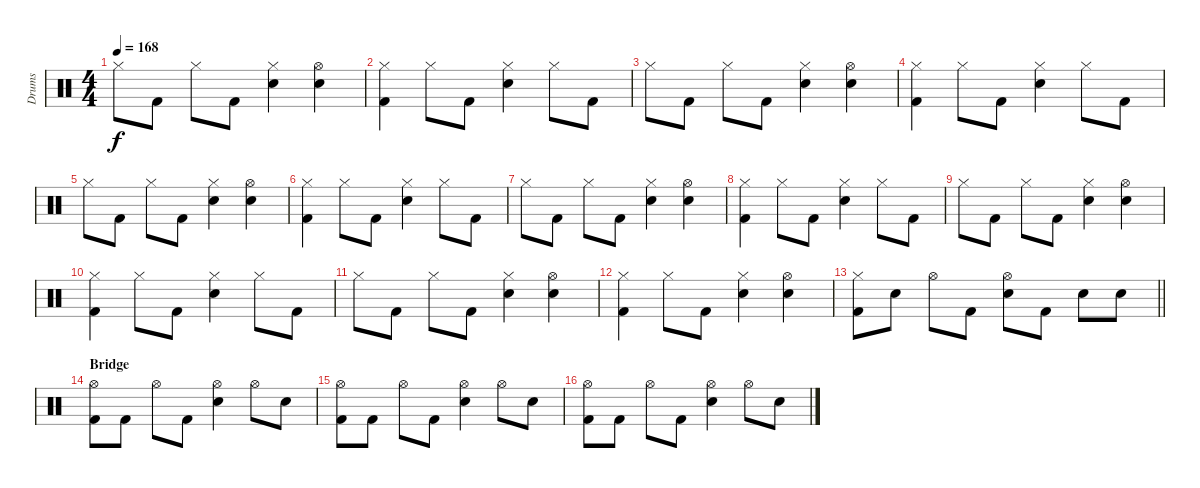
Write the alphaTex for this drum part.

\track ("Drums" "Drums") {instrument percussion}
\staff {score}
\articulation defaults
\ts (4 4)
\tempo 168
\clef neutral
\ks c "Hi-Hat (closed)".8{dy f} "Kick (hit) 2".8 "Hi-Hat (closed)".8 "Kick (hit) 2".8
("Hi-Hat (closed)" "Snare (hit) 2").4 ("Hi-Hat (open)" "Snare (hit) 2").4 |
("Hi-Hat (closed)" "Kick (hit) 2").4 "Hi-Hat (closed)".8 "Kick (hit) 2".8 ("Hi-Hat (closed)" "Snare (hit) 2").4 "Hi-Hat (closed)".8 "Kick (hit) 2".8 |
"Hi-Hat (closed)".8 "Kick (hit) 2".8 "Hi-Hat (closed)".8 "Kick (hit) 2".8 ("Hi-Hat (closed)" "Snare (hit) 2").4 ("Hi-Hat (open)" "Snare (hit) 2").4 |
("Hi-Hat (closed)" "Kick (hit) 2").4 "Hi-Hat (closed)".8 "Kick (hit) 2".8 ("Hi-Hat (closed)" "Snare (hit) 2").4 "Hi-Hat (closed)".8 "Kick (hit) 2".8 |
"Hi-Hat (closed)".8 "Kick (hit) 2".8 "Hi-Hat (closed)".8 "Kick (hit) 2".8 ("Hi-Hat (closed)" "Snare (hit) 2").4 ("Hi-Hat (open)" "Snare (hit) 2").4 |
("Hi-Hat (closed)" "Kick (hit) 2").4 "Hi-Hat (closed)".8 "Kick (hit) 2".8 ("Hi-Hat (closed)" "Snare (hit) 2").4 "Hi-Hat (closed)".8 "Kick (hit) 2".8 |
"Hi-Hat (closed)".8 "Kick (hit) 2".8 "Hi-Hat (closed)".8 "Kick (hit) 2".8 ("Hi-Hat (closed)" "Snare (hit) 2").4 ("Hi-Hat (open)" "Snare (hit) 2").4 |
("Hi-Hat (closed)" "Kick (hit) 2").4 "Hi-Hat (closed)".8 "Kick (hit) 2".8 ("Hi-Hat (closed)" "Snare (hit) 2").4 "Hi-Hat (closed)".8 "Kick (hit) 2".8 |
"Hi-Hat (closed)".8 "Kick (hit) 2".8 "Hi-Hat (closed)".8 "Kick (hit) 2".8 ("Hi-Hat (closed)" "Snare (hit) 2").4 ("Hi-Hat (open)" "Snare (hit) 2").4 |
("Hi-Hat (closed)" "Kick (hit) 2").4 "Hi-Hat (closed)".8 "Kick (hit) 2".8 ("Hi-Hat (closed)" "Snare (hit) 2").4 "Hi-Hat (closed)".8 "Kick (hit) 2".8 |
"Hi-Hat (closed)".8 "Kick (hit) 2".8 "Hi-Hat (closed)".8 "Kick (hit) 2".8 ("Hi-Hat (closed)" "Snare (hit) 2").4 ("Hi-Hat (open)" "Snare (hit) 2").4 |
("Hi-Hat (closed)" "Kick (hit) 2").4 "Hi-Hat (closed)".8 "Kick (hit) 2".8 ("Hi-Hat (closed)" "Snare (hit) 2").4 ("Hi-Hat (open)" "Snare (hit) 2").4 |
\barLineRight lightlight
("Hi-Hat (closed)" "Kick (hit) 2").8 "Snare (hit) 2".8 "Hi-Hat (open)".8 "Kick (hit) 2".8 ("Hi-Hat (open)" "Snare (hit) 2").8 "Kick (hit) 2".8 "Snare (hit) 2".8 "Snare (hit) 2".8 |
\section ("" "Bridge")
("Hi-Hat (open)" "Kick (hit) 2").8 "Kick (hit) 2".8 "Hi-Hat (open)".8 "Kick (hit) 2".8 ("Hi-Hat (open)" "Snare (hit) 2").4 "Hi-Hat (open)".8 "Snare (hit) 2".8 |
("Hi-Hat (open)" "Kick (hit) 2").8 "Kick (hit) 2".8 "Hi-Hat (open)".8 "Kick (hit) 2".8 ("Hi-Hat (open)" "Snare (hit) 2").4 "Hi-Hat (open)".8 "Snare (hit) 2".8 |
("Hi-Hat (open)" "Kick (hit) 2").8 "Kick (hit) 2".8 "Hi-Hat (open)".8 "Kick (hit) 2".8 ("Hi-Hat (open)" "Snare (hit) 2").4 "Hi-Hat (open)".8 "Snare (hit) 2".8
